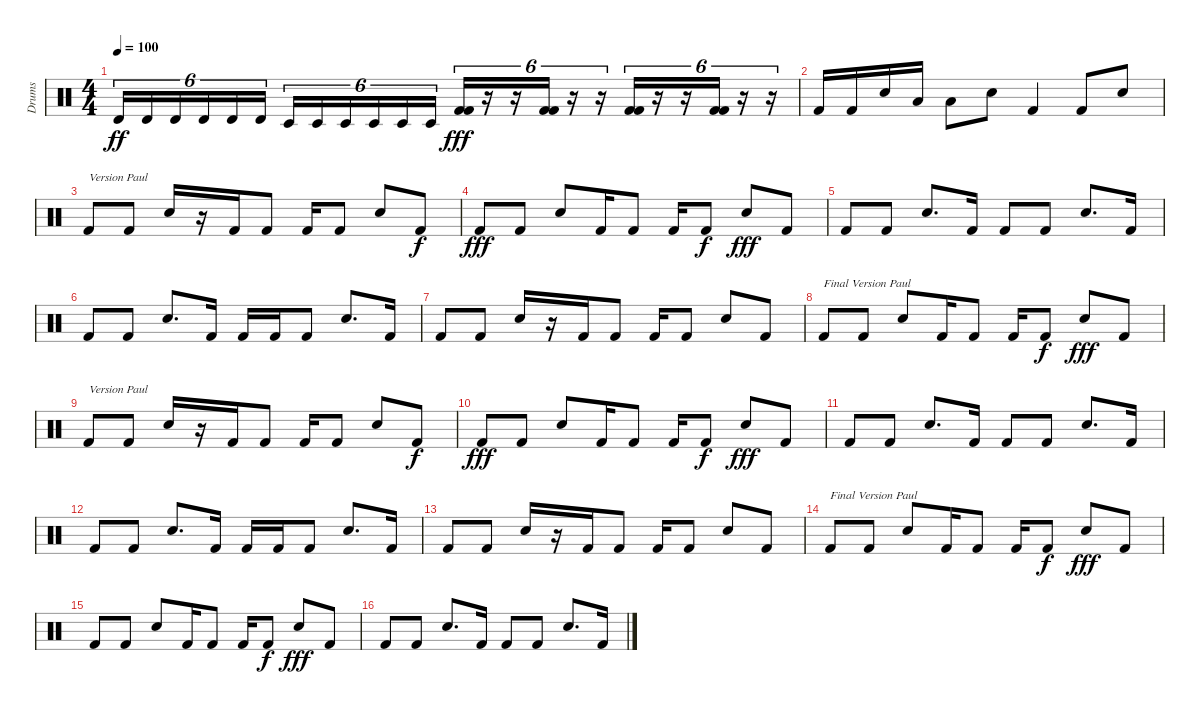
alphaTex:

\track ("Drums" "Drums") {instrument percussion}
\staff {score}
\articulation defaults
\ts (4 4)
\tempo 100
\clef neutral
\ks c "Timbale high (hit)".16{tu (6 4) dy ff} "Timbale high (hit)".16{tu (6 4)} "Timbale high (hit)".16{tu (6 4)} "Timbale high (hit)".16{tu (6 4)} "Timbale high (hit)".16{tu (6 4)} "Timbale high (hit)".16{tu (6 4)} "Timbale low (hit)".16{tu (6 4)} "Timbale low (hit)".16{tu (6 4)} "Timbale low (hit)".16{tu (6 4)} "Timbale low (hit)".16{tu (6 4)} "Timbale low (hit)".16{tu (6 4)} "Timbale low (hit)".16{tu (6 4)}
("Kick (hit) 2" "Kick (hit) 2").16{tu (6 4) dy fff} r.16{tu (6 4)} r.16{tu (6 4)} ("Kick (hit) 2" "Kick (hit) 2").16{tu (6 4)} r.16{tu (6 4)} r.16{tu (6 4)} ("Kick (hit) 2" "Kick (hit) 2").16{tu (6 4)} r.16{tu (6 4)} r.16{tu (6 4)} ("Kick (hit) 2" "Kick (hit) 2").16{tu (6 4)} r.16{tu (6 4)} r.16{tu (6 4)} |
"Kick (hit) 2".16 "Kick (hit) 2".16 "Electric Snare (hit)".16 "Low Tom (hit)".16 "Low Tom (hit)".8 "Electric Snare (hit)".8 "Kick (hit) 2".4 "Kick (hit) 2".8 "Electric Snare (hit)".8 |
"Kick (hit) 2".8{txt "Version Paul"} "Kick (hit) 2".8 "Electric Snare (hit)".16 r.16 "Kick (hit) 2".16 "Kick (hit) 2".8 "Kick (hit) 2".16 "Kick (hit) 2".8 "Electric Snare (hit)".8 "Kick (hit) 2".8{dy f} |
"Kick (hit) 2".8{dy fff} "Kick (hit) 2".8 "Electric Snare (hit)".8 "Kick (hit) 2".16 "Kick (hit) 2".8 "Kick (hit) 2".16 "Kick (hit) 2".8{dy f} "Electric Snare (hit)".8{dy fff} "Kick (hit) 2".8 |
"Kick (hit) 2".8 "Kick (hit) 2".8 "Electric Snare (hit)".8{d} "Kick (hit) 2".16 "Kick (hit) 2".8 "Kick (hit) 2".8 "Electric Snare (hit)".8{d} "Kick (hit) 2".16 |
"Kick (hit) 2".8 "Kick (hit) 2".8 "Electric Snare (hit)".8{d} "Kick (hit) 2".16 "Kick (hit) 2".16 "Kick (hit) 2".16 "Kick (hit) 2".8 "Electric Snare (hit)".8{d} "Kick (hit) 2".16 |
"Kick (hit) 2".8 "Kick (hit) 2".8 "Electric Snare (hit)".16 r.16 "Kick (hit) 2".16 "Kick (hit) 2".8 "Kick (hit) 2".16 "Kick (hit) 2".8 "Electric Snare (hit)".8 "Kick (hit) 2".8 |
"Kick (hit) 2".8{txt "Final Version Paul"} "Kick (hit) 2".8 "Electric Snare (hit)".8 "Kick (hit) 2".16 "Kick (hit) 2".8 "Kick (hit) 2".16 "Kick (hit) 2".8{dy f} "Electric Snare (hit)".8{dy fff} "Kick (hit) 2".8 |
"Kick (hit) 2".8{txt "Version Paul"} "Kick (hit) 2".8 "Electric Snare (hit)".16 r.16 "Kick (hit) 2".16 "Kick (hit) 2".8 "Kick (hit) 2".16 "Kick (hit) 2".8 "Electric Snare (hit)".8 "Kick (hit) 2".8{dy f} |
"Kick (hit) 2".8{dy fff} "Kick (hit) 2".8 "Electric Snare (hit)".8 "Kick (hit) 2".16 "Kick (hit) 2".8 "Kick (hit) 2".16 "Kick (hit) 2".8{dy f} "Electric Snare (hit)".8{dy fff} "Kick (hit) 2".8 |
"Kick (hit) 2".8 "Kick (hit) 2".8 "Electric Snare (hit)".8{d} "Kick (hit) 2".16 "Kick (hit) 2".8 "Kick (hit) 2".8 "Electric Snare (hit)".8{d} "Kick (hit) 2".16 |
"Kick (hit) 2".8 "Kick (hit) 2".8 "Electric Snare (hit)".8{d} "Kick (hit) 2".16 "Kick (hit) 2".16 "Kick (hit) 2".16 "Kick (hit) 2".8 "Electric Snare (hit)".8{d} "Kick (hit) 2".16 |
"Kick (hit) 2".8 "Kick (hit) 2".8 "Electric Snare (hit)".16 r.16 "Kick (hit) 2".16 "Kick (hit) 2".8 "Kick (hit) 2".16 "Kick (hit) 2".8 "Electric Snare (hit)".8 "Kick (hit) 2".8 |
"Kick (hit) 2".8{txt "Final Version Paul"} "Kick (hit) 2".8 "Electric Snare (hit)".8 "Kick (hit) 2".16 "Kick (hit) 2".8 "Kick (hit) 2".16 "Kick (hit) 2".8{dy f} "Electric Snare (hit)".8{dy fff} "Kick (hit) 2".8 |
"Kick (hit) 2".8 "Kick (hit) 2".8 "Electric Snare (hit)".8 "Kick (hit) 2".16 "Kick (hit) 2".8 "Kick (hit) 2".16 "Kick (hit) 2".8{dy f} "Electric Snare (hit)".8{dy fff} "Kick (hit) 2".8 |
"Kick (hit) 2".8 "Kick (hit) 2".8 "Electric Snare (hit)".8{d} "Kick (hit) 2".16 "Kick (hit) 2".8 "Kick (hit) 2".8 "Electric Snare (hit)".8{d} "Kick (hit) 2".16
